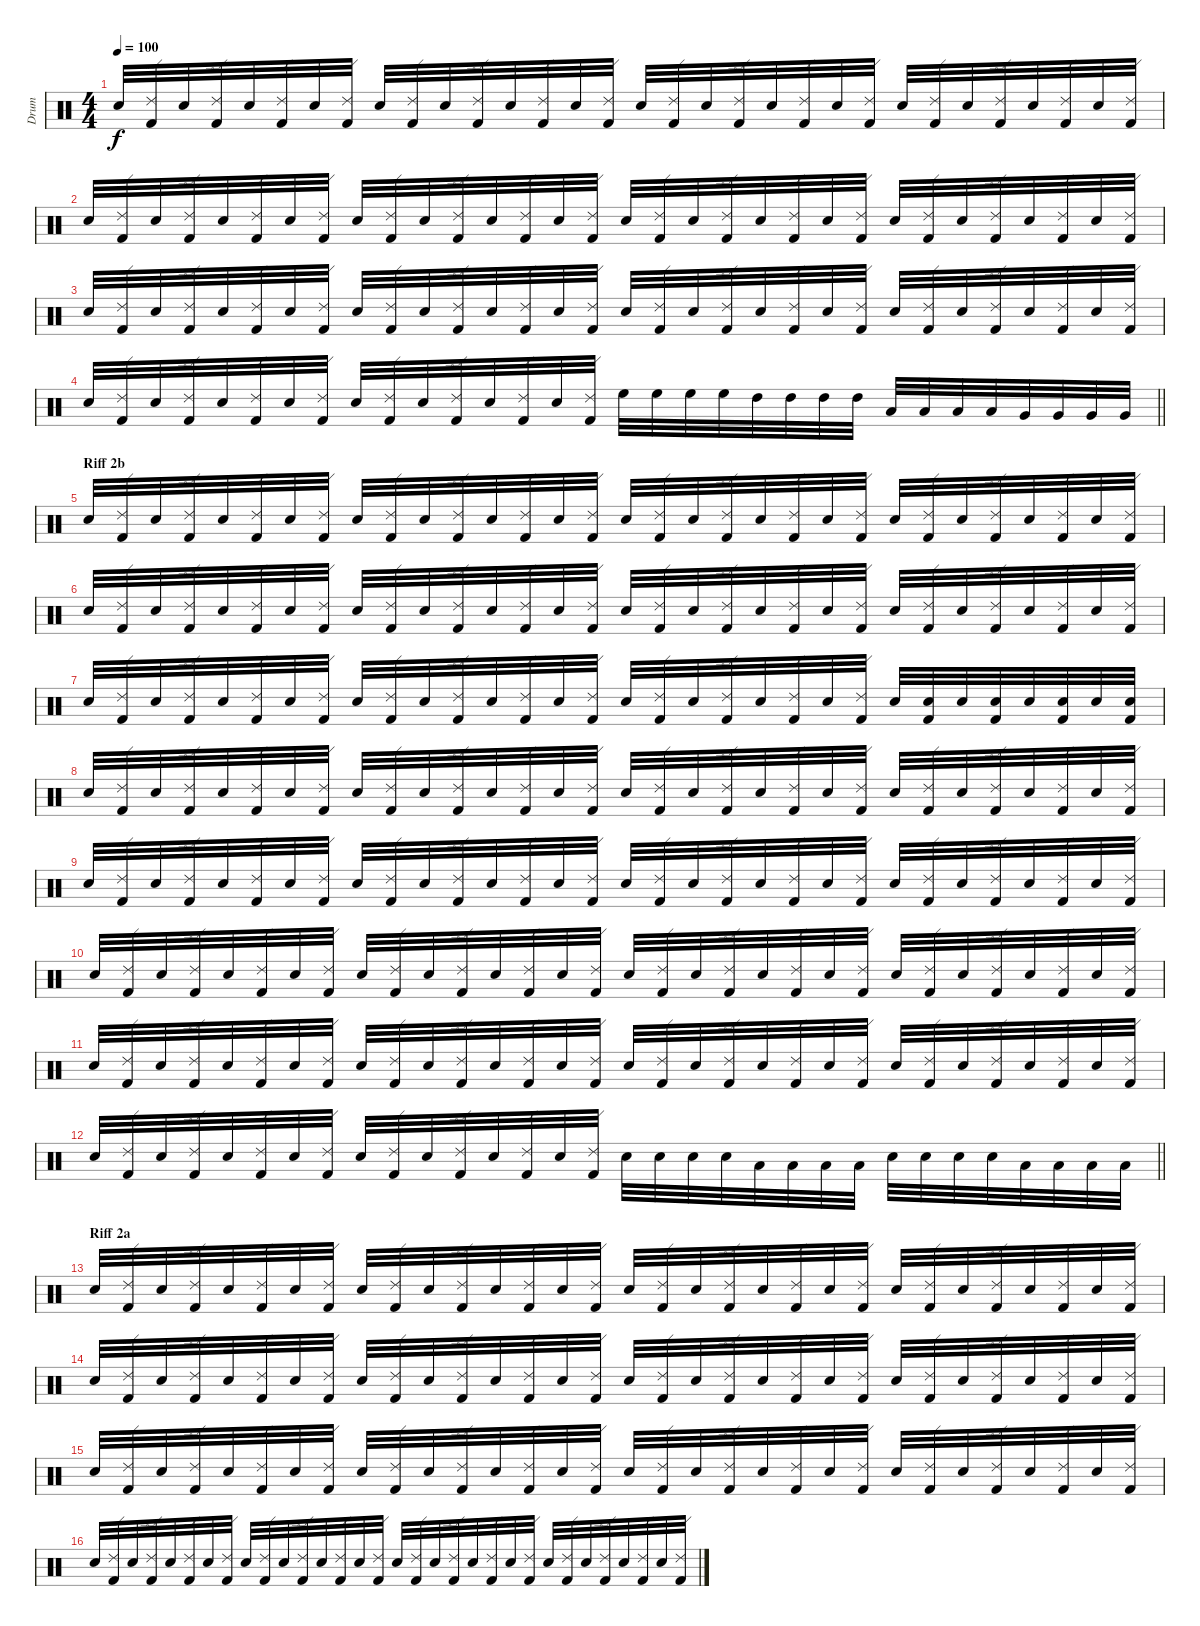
\track ("Drum" "Drum") {instrument percussion}
\staff {score}
\articulation defaults
\ts (4 4)
\tempo 100
\clef neutral
\ks c "Electric Snare (hit)".32{dy f}
("Ride (edge) 2" "Kick (hit) 2").32 "Electric Snare (hit)".32 ("Ride (edge) 2" "Kick (hit) 2").32 "Electric Snare (hit)".32 ("Ride (edge) 2" "Kick (hit) 2").32 "Electric Snare (hit)".32 ("Ride (edge) 2" "Kick (hit) 2").32 "Electric Snare (hit)".32 ("Ride (edge) 2" "Kick (hit) 2").32 "Electric Snare (hit)".32 ("Ride (edge) 2" "Kick (hit) 2").32 "Electric Snare (hit)".32 ("Ride (edge) 2" "Kick (hit) 2").32 "Electric Snare (hit)".32 ("Ride (edge) 2" "Kick (hit) 2").32 "Electric Snare (hit)".32 ("Ride (edge) 2" "Kick (hit) 2").32 "Electric Snare (hit)".32 ("Ride (edge) 2" "Kick (hit) 2").32 "Electric Snare (hit)".32 ("Ride (edge) 2" "Kick (hit) 2").32 "Electric Snare (hit)".32 ("Ride (edge) 2" "Kick (hit) 2").32 "Electric Snare (hit)".32 ("Ride (edge) 2" "Kick (hit) 2").32 "Electric Snare (hit)".32 ("Ride (edge) 2" "Kick (hit) 2").32 "Electric Snare (hit)".32 ("Ride (edge) 2" "Kick (hit) 2").32 "Electric Snare (hit)".32 ("Ride (edge) 2" "Kick (hit) 2").32 |
"Electric Snare (hit)".32 ("Ride (edge) 2" "Kick (hit) 2").32 "Electric Snare (hit)".32 ("Ride (edge) 2" "Kick (hit) 2").32 "Electric Snare (hit)".32 ("Ride (edge) 2" "Kick (hit) 2").32 "Electric Snare (hit)".32 ("Ride (edge) 2" "Kick (hit) 2").32 "Electric Snare (hit)".32 ("Ride (edge) 2" "Kick (hit) 2").32 "Electric Snare (hit)".32 ("Ride (edge) 2" "Kick (hit) 2").32 "Electric Snare (hit)".32 ("Ride (edge) 2" "Kick (hit) 2").32 "Electric Snare (hit)".32 ("Ride (edge) 2" "Kick (hit) 2").32 "Electric Snare (hit)".32 ("Ride (edge) 2" "Kick (hit) 2").32 "Electric Snare (hit)".32 ("Ride (edge) 2" "Kick (hit) 2").32 "Electric Snare (hit)".32 ("Ride (edge) 2" "Kick (hit) 2").32 "Electric Snare (hit)".32 ("Ride (edge) 2" "Kick (hit) 2").32 "Electric Snare (hit)".32 ("Ride (edge) 2" "Kick (hit) 2").32 "Electric Snare (hit)".32 ("Ride (edge) 2" "Kick (hit) 2").32 "Electric Snare (hit)".32 ("Ride (edge) 2" "Kick (hit) 2").32 "Electric Snare (hit)".32 ("Ride (edge) 2" "Kick (hit) 2").32 |
"Electric Snare (hit)".32 ("Ride (edge) 2" "Kick (hit) 2").32 "Electric Snare (hit)".32 ("Ride (edge) 2" "Kick (hit) 2").32 "Electric Snare (hit)".32 ("Ride (edge) 2" "Kick (hit) 2").32 "Electric Snare (hit)".32 ("Ride (edge) 2" "Kick (hit) 2").32 "Electric Snare (hit)".32 ("Ride (edge) 2" "Kick (hit) 2").32 "Electric Snare (hit)".32 ("Ride (edge) 2" "Kick (hit) 2").32 "Electric Snare (hit)".32 ("Ride (edge) 2" "Kick (hit) 2").32 "Electric Snare (hit)".32 ("Ride (edge) 2" "Kick (hit) 2").32 "Electric Snare (hit)".32 ("Ride (edge) 2" "Kick (hit) 2").32 "Electric Snare (hit)".32 ("Ride (edge) 2" "Kick (hit) 2").32 "Electric Snare (hit)".32 ("Ride (edge) 2" "Kick (hit) 2").32 "Electric Snare (hit)".32 ("Ride (edge) 2" "Kick (hit) 2").32 "Electric Snare (hit)".32 ("Ride (edge) 2" "Kick (hit) 2").32 "Electric Snare (hit)".32 ("Ride (edge) 2" "Kick (hit) 2").32 "Electric Snare (hit)".32 ("Ride (edge) 2" "Kick (hit) 2").32 "Electric Snare (hit)".32 ("Ride (edge) 2" "Kick (hit) 2").32 |
\barLineRight lightlight "Electric Snare (hit)".32
("Ride (edge) 2" "Kick (hit) 2").32 "Electric Snare (hit)".32 ("Ride (edge) 2" "Kick (hit) 2").32 "Electric Snare (hit)".32 ("Ride (edge) 2" "Kick (hit) 2").32 "Electric Snare (hit)".32 ("Ride (edge) 2" "Kick (hit) 2").32 "Electric Snare (hit)".32 ("Ride (edge) 2" "Kick (hit) 2").32 "Electric Snare (hit)".32 ("Ride (edge) 2" "Kick (hit) 2").32 "Electric Snare (hit)".32 ("Ride (edge) 2" "Kick (hit) 2").32 "Electric Snare (hit)".32 ("Ride (edge) 2" "Kick (hit) 2").32 "High Floor Tom (hit)".32 "High Floor Tom (hit)".32 "High Floor Tom (hit)".32 "High Floor Tom (hit)".32 "High Tom (hit)".32 "High Tom (hit)".32 "High Tom (hit)".32 "High Tom (hit)".32 "Low Tom (hit)".32 "Low Tom (hit)".32 "Low Tom (hit)".32 "Low Tom (hit)".32 "Very Low Tom (hit)".32 "Very Low Tom (hit)".32 "Very Low Tom (hit)".32 "Very Low Tom (hit)".32 |
\section ("" "Riff 2b")
"Electric Snare (hit)".32 ("Ride (edge) 2" "Kick (hit) 2").32 "Electric Snare (hit)".32 ("Ride (edge) 2" "Kick (hit) 2").32 "Electric Snare (hit)".32 ("Ride (edge) 2" "Kick (hit) 2").32 "Electric Snare (hit)".32 ("Ride (edge) 2" "Kick (hit) 2").32 "Electric Snare (hit)".32 ("Ride (edge) 2" "Kick (hit) 2").32 "Electric Snare (hit)".32 ("Ride (edge) 2" "Kick (hit) 2").32 "Electric Snare (hit)".32 ("Ride (edge) 2" "Kick (hit) 2").32 "Electric Snare (hit)".32 ("Ride (edge) 2" "Kick (hit) 2").32 "Electric Snare (hit)".32 ("Ride (edge) 2" "Kick (hit) 2").32 "Electric Snare (hit)".32 ("Ride (edge) 2" "Kick (hit) 2").32 "Electric Snare (hit)".32 ("Ride (edge) 2" "Kick (hit) 2").32 "Electric Snare (hit)".32 ("Ride (edge) 2" "Kick (hit) 2").32 "Electric Snare (hit)".32 ("Ride (edge) 2" "Kick (hit) 2").32 "Electric Snare (hit)".32 ("Ride (edge) 2" "Kick (hit) 2").32 "Electric Snare (hit)".32 ("Ride (edge) 2" "Kick (hit) 2").32 "Electric Snare (hit)".32 ("Ride (edge) 2" "Kick (hit) 2").32 |
"Electric Snare (hit)".32 ("Ride (edge) 2" "Kick (hit) 2").32 "Electric Snare (hit)".32 ("Ride (edge) 2" "Kick (hit) 2").32 "Electric Snare (hit)".32 ("Ride (edge) 2" "Kick (hit) 2").32 "Electric Snare (hit)".32 ("Ride (edge) 2" "Kick (hit) 2").32 "Electric Snare (hit)".32 ("Ride (edge) 2" "Kick (hit) 2").32 "Electric Snare (hit)".32 ("Ride (edge) 2" "Kick (hit) 2").32 "Electric Snare (hit)".32 ("Ride (edge) 2" "Kick (hit) 2").32 "Electric Snare (hit)".32 ("Ride (edge) 2" "Kick (hit) 2").32 "Electric Snare (hit)".32 ("Ride (edge) 2" "Kick (hit) 2").32 "Electric Snare (hit)".32 ("Ride (edge) 2" "Kick (hit) 2").32 "Electric Snare (hit)".32 ("Ride (edge) 2" "Kick (hit) 2").32 "Electric Snare (hit)".32 ("Ride (edge) 2" "Kick (hit) 2").32 "Electric Snare (hit)".32 ("Ride (edge) 2" "Kick (hit) 2").32 "Electric Snare (hit)".32 ("Ride (edge) 2" "Kick (hit) 2").32 "Electric Snare (hit)".32 ("Ride (edge) 2" "Kick (hit) 2").32 "Electric Snare (hit)".32 ("Ride (edge) 2" "Kick (hit) 2").32 |
"Electric Snare (hit)".32 ("Ride (edge) 2" "Kick (hit) 2").32 "Electric Snare (hit)".32 ("Ride (edge) 2" "Kick (hit) 2").32 "Electric Snare (hit)".32 ("Ride (edge) 2" "Kick (hit) 2").32 "Electric Snare (hit)".32 ("Ride (edge) 2" "Kick (hit) 2").32 "Electric Snare (hit)".32 ("Ride (edge) 2" "Kick (hit) 2").32 "Electric Snare (hit)".32 ("Ride (edge) 2" "Kick (hit) 2").32 "Electric Snare (hit)".32 ("Ride (edge) 2" "Kick (hit) 2").32 "Electric Snare (hit)".32 ("Ride (edge) 2" "Kick (hit) 2").32 "Electric Snare (hit)".32 ("Ride (edge) 2" "Kick (hit) 2").32 "Electric Snare (hit)".32 ("Ride (edge) 2" "Kick (hit) 2").32 "Electric Snare (hit)".32 ("Ride (edge) 2" "Kick (hit) 2").32 "Electric Snare (hit)".32 ("Ride (edge) 2" "Kick (hit) 2").32 "Electric Snare (hit)".32 ("Electric Snare (hit)" "Kick (hit) 2").32 "Electric Snare (hit)".32 ("Electric Snare (hit)" "Kick (hit) 2").32 "Electric Snare (hit)".32 ("Electric Snare (hit)" "Kick (hit) 2").32 "Electric Snare (hit)".32 ("Electric Snare (hit)" "Kick (hit) 2").32 |
"Electric Snare (hit)".32 ("Ride (edge) 2" "Kick (hit) 2").32 "Electric Snare (hit)".32 ("Ride (edge) 2" "Kick (hit) 2").32 "Electric Snare (hit)".32 ("Ride (edge) 2" "Kick (hit) 2").32 "Electric Snare (hit)".32 ("Ride (edge) 2" "Kick (hit) 2").32 "Electric Snare (hit)".32 ("Ride (edge) 2" "Kick (hit) 2").32 "Electric Snare (hit)".32 ("Ride (edge) 2" "Kick (hit) 2").32 "Electric Snare (hit)".32 ("Ride (edge) 2" "Kick (hit) 2").32 "Electric Snare (hit)".32 ("Ride (edge) 2" "Kick (hit) 2").32 "Electric Snare (hit)".32 ("Ride (edge) 2" "Kick (hit) 2").32 "Electric Snare (hit)".32 ("Ride (edge) 2" "Kick (hit) 2").32 "Electric Snare (hit)".32 ("Ride (edge) 2" "Kick (hit) 2").32 "Electric Snare (hit)".32 ("Ride (edge) 2" "Kick (hit) 2").32 "Electric Snare (hit)".32 ("Ride (edge) 2" "Kick (hit) 2").32 "Electric Snare (hit)".32 ("Ride (edge) 2" "Kick (hit) 2").32 "Electric Snare (hit)".32 ("Ride (edge) 2" "Kick (hit) 2").32 "Electric Snare (hit)".32 ("Ride (edge) 2" "Kick (hit) 2").32 |
"Electric Snare (hit)".32 ("Ride (edge) 2" "Kick (hit) 2").32 "Electric Snare (hit)".32 ("Ride (edge) 2" "Kick (hit) 2").32 "Electric Snare (hit)".32 ("Ride (edge) 2" "Kick (hit) 2").32 "Electric Snare (hit)".32 ("Ride (edge) 2" "Kick (hit) 2").32 "Electric Snare (hit)".32 ("Ride (edge) 2" "Kick (hit) 2").32 "Electric Snare (hit)".32 ("Ride (edge) 2" "Kick (hit) 2").32 "Electric Snare (hit)".32 ("Ride (edge) 2" "Kick (hit) 2").32 "Electric Snare (hit)".32 ("Ride (edge) 2" "Kick (hit) 2").32 "Electric Snare (hit)".32 ("Ride (edge) 2" "Kick (hit) 2").32 "Electric Snare (hit)".32 ("Ride (edge) 2" "Kick (hit) 2").32 "Electric Snare (hit)".32 ("Ride (edge) 2" "Kick (hit) 2").32 "Electric Snare (hit)".32 ("Ride (edge) 2" "Kick (hit) 2").32 "Electric Snare (hit)".32 ("Ride (edge) 2" "Kick (hit) 2").32 "Electric Snare (hit)".32 ("Ride (edge) 2" "Kick (hit) 2").32 "Electric Snare (hit)".32 ("Ride (edge) 2" "Kick (hit) 2").32 "Electric Snare (hit)".32 ("Ride (edge) 2" "Kick (hit) 2").32 |
"Electric Snare (hit)".32 ("Ride (edge) 2" "Kick (hit) 2").32 "Electric Snare (hit)".32 ("Ride (edge) 2" "Kick (hit) 2").32 "Electric Snare (hit)".32 ("Ride (edge) 2" "Kick (hit) 2").32 "Electric Snare (hit)".32 ("Ride (edge) 2" "Kick (hit) 2").32 "Electric Snare (hit)".32 ("Ride (edge) 2" "Kick (hit) 2").32 "Electric Snare (hit)".32 ("Ride (edge) 2" "Kick (hit) 2").32 "Electric Snare (hit)".32 ("Ride (edge) 2" "Kick (hit) 2").32 "Electric Snare (hit)".32 ("Ride (edge) 2" "Kick (hit) 2").32 "Electric Snare (hit)".32 ("Ride (edge) 2" "Kick (hit) 2").32 "Electric Snare (hit)".32 ("Ride (edge) 2" "Kick (hit) 2").32 "Electric Snare (hit)".32 ("Ride (edge) 2" "Kick (hit) 2").32 "Electric Snare (hit)".32 ("Ride (edge) 2" "Kick (hit) 2").32 "Electric Snare (hit)".32 ("Ride (edge) 2" "Kick (hit) 2").32 "Electric Snare (hit)".32 ("Ride (edge) 2" "Kick (hit) 2").32 "Electric Snare (hit)".32 ("Ride (edge) 2" "Kick (hit) 2").32 "Electric Snare (hit)".32 ("Ride (edge) 2" "Kick (hit) 2").32 |
"Electric Snare (hit)".32 ("Ride (edge) 2" "Kick (hit) 2").32 "Electric Snare (hit)".32 ("Ride (edge) 2" "Kick (hit) 2").32 "Electric Snare (hit)".32 ("Ride (edge) 2" "Kick (hit) 2").32 "Electric Snare (hit)".32 ("Ride (edge) 2" "Kick (hit) 2").32 "Electric Snare (hit)".32 ("Ride (edge) 2" "Kick (hit) 2").32 "Electric Snare (hit)".32 ("Ride (edge) 2" "Kick (hit) 2").32 "Electric Snare (hit)".32 ("Ride (edge) 2" "Kick (hit) 2").32 "Electric Snare (hit)".32 ("Ride (edge) 2" "Kick (hit) 2").32 "Electric Snare (hit)".32 ("Ride (edge) 2" "Kick (hit) 2").32 "Electric Snare (hit)".32 ("Ride (edge) 2" "Kick (hit) 2").32 "Electric Snare (hit)".32 ("Ride (edge) 2" "Kick (hit) 2").32 "Electric Snare (hit)".32 ("Ride (edge) 2" "Kick (hit) 2").32 "Electric Snare (hit)".32 ("Ride (edge) 2" "Kick (hit) 2").32 "Electric Snare (hit)".32 ("Ride (edge) 2" "Kick (hit) 2").32 "Electric Snare (hit)".32 ("Ride (edge) 2" "Kick (hit) 2").32 "Electric Snare (hit)".32 ("Ride (edge) 2" "Kick (hit) 2").32 |
\barLineRight lightlight "Electric Snare (hit)".32
("Ride (edge) 2" "Kick (hit) 2").32 "Electric Snare (hit)".32 ("Ride (edge) 2" "Kick (hit) 2").32 "Electric Snare (hit)".32 ("Ride (edge) 2" "Kick (hit) 2").32 "Electric Snare (hit)".32 ("Ride (edge) 2" "Kick (hit) 2").32 "Electric Snare (hit)".32 ("Ride (edge) 2" "Kick (hit) 2").32 "Electric Snare (hit)".32 ("Ride (edge) 2" "Kick (hit) 2").32 "Electric Snare (hit)".32 ("Ride (edge) 2" "Kick (hit) 2").32 "Electric Snare (hit)".32 ("Ride (edge) 2" "Kick (hit) 2").32 "Electric Snare (hit)".32 "Electric Snare (hit)".32 "Electric Snare (hit)".32 "Electric Snare (hit)".32 "Low Tom (hit)".32 "Low Tom (hit)".32 "Low Tom (hit)".32 "Low Tom (hit)".32 "Electric Snare (hit)".32 "Electric Snare (hit)".32 "Electric Snare (hit)".32 "Electric Snare (hit)".32 "Low Tom (hit)".32 "Low Tom (hit)".32 "Low Tom (hit)".32 "Low Tom (hit)".32 |
\section ("" "Riff 2a")
"Electric Snare (hit)".32 ("Ride (edge) 2" "Kick (hit) 2").32 "Electric Snare (hit)".32 ("Ride (edge) 2" "Kick (hit) 2").32 "Electric Snare (hit)".32 ("Ride (edge) 2" "Kick (hit) 2").32 "Electric Snare (hit)".32 ("Ride (edge) 2" "Kick (hit) 2").32 "Electric Snare (hit)".32 ("Ride (edge) 2" "Kick (hit) 2").32 "Electric Snare (hit)".32 ("Ride (edge) 2" "Kick (hit) 2").32 "Electric Snare (hit)".32 ("Ride (edge) 2" "Kick (hit) 2").32 "Electric Snare (hit)".32 ("Ride (edge) 2" "Kick (hit) 2").32 "Electric Snare (hit)".32 ("Ride (edge) 2" "Kick (hit) 2").32 "Electric Snare (hit)".32 ("Ride (edge) 2" "Kick (hit) 2").32 "Electric Snare (hit)".32 ("Ride (edge) 2" "Kick (hit) 2").32 "Electric Snare (hit)".32 ("Ride (edge) 2" "Kick (hit) 2").32 "Electric Snare (hit)".32 ("Ride (edge) 2" "Kick (hit) 2").32 "Electric Snare (hit)".32 ("Ride (edge) 2" "Kick (hit) 2").32 "Electric Snare (hit)".32 ("Ride (edge) 2" "Kick (hit) 2").32 "Electric Snare (hit)".32 ("Ride (edge) 2" "Kick (hit) 2").32 |
"Electric Snare (hit)".32 ("Ride (edge) 2" "Kick (hit) 2").32 "Electric Snare (hit)".32 ("Ride (edge) 2" "Kick (hit) 2").32 "Electric Snare (hit)".32 ("Ride (edge) 2" "Kick (hit) 2").32 "Electric Snare (hit)".32 ("Ride (edge) 2" "Kick (hit) 2").32 "Electric Snare (hit)".32 ("Ride (edge) 2" "Kick (hit) 2").32 "Electric Snare (hit)".32 ("Ride (edge) 2" "Kick (hit) 2").32 "Electric Snare (hit)".32 ("Ride (edge) 2" "Kick (hit) 2").32 "Electric Snare (hit)".32 ("Ride (edge) 2" "Kick (hit) 2").32 "Electric Snare (hit)".32 ("Ride (edge) 2" "Kick (hit) 2").32 "Electric Snare (hit)".32 ("Ride (edge) 2" "Kick (hit) 2").32 "Electric Snare (hit)".32 ("Ride (edge) 2" "Kick (hit) 2").32 "Electric Snare (hit)".32 ("Ride (edge) 2" "Kick (hit) 2").32 "Electric Snare (hit)".32 ("Ride (edge) 2" "Kick (hit) 2").32 "Electric Snare (hit)".32 ("Ride (edge) 2" "Kick (hit) 2").32 "Electric Snare (hit)".32 ("Ride (edge) 2" "Kick (hit) 2").32 "Electric Snare (hit)".32 ("Ride (edge) 2" "Kick (hit) 2").32 |
"Electric Snare (hit)".32 ("Ride (edge) 2" "Kick (hit) 2").32 "Electric Snare (hit)".32 ("Ride (edge) 2" "Kick (hit) 2").32 "Electric Snare (hit)".32 ("Ride (edge) 2" "Kick (hit) 2").32 "Electric Snare (hit)".32 ("Ride (edge) 2" "Kick (hit) 2").32 "Electric Snare (hit)".32 ("Ride (edge) 2" "Kick (hit) 2").32 "Electric Snare (hit)".32 ("Ride (edge) 2" "Kick (hit) 2").32 "Electric Snare (hit)".32 ("Ride (edge) 2" "Kick (hit) 2").32 "Electric Snare (hit)".32 ("Ride (edge) 2" "Kick (hit) 2").32 "Electric Snare (hit)".32 ("Ride (edge) 2" "Kick (hit) 2").32 "Electric Snare (hit)".32 ("Ride (edge) 2" "Kick (hit) 2").32 "Electric Snare (hit)".32 ("Ride (edge) 2" "Kick (hit) 2").32 "Electric Snare (hit)".32 ("Ride (edge) 2" "Kick (hit) 2").32 "Electric Snare (hit)".32 ("Ride (edge) 2" "Kick (hit) 2").32 "Electric Snare (hit)".32 ("Ride (edge) 2" "Kick (hit) 2").32 "Electric Snare (hit)".32 ("Ride (edge) 2" "Kick (hit) 2").32 "Electric Snare (hit)".32 ("Ride (edge) 2" "Kick (hit) 2").32 |
"Electric Snare (hit)".32 ("Ride (edge) 2" "Kick (hit) 2").32 "Electric Snare (hit)".32 ("Ride (edge) 2" "Kick (hit) 2").32 "Electric Snare (hit)".32 ("Ride (edge) 2" "Kick (hit) 2").32 "Electric Snare (hit)".32 ("Ride (edge) 2" "Kick (hit) 2").32 "Electric Snare (hit)".32 ("Ride (edge) 2" "Kick (hit) 2").32 "Electric Snare (hit)".32 ("Ride (edge) 2" "Kick (hit) 2").32 "Electric Snare (hit)".32 ("Ride (edge) 2" "Kick (hit) 2").32 "Electric Snare (hit)".32 ("Ride (edge) 2" "Kick (hit) 2").32 "Electric Snare (hit)".32 ("Ride (edge) 2" "Kick (hit) 2").32 "Electric Snare (hit)".32 ("Ride (edge) 2" "Kick (hit) 2").32 "Electric Snare (hit)".32 ("Ride (edge) 2" "Kick (hit) 2").32 "Electric Snare (hit)".32 ("Ride (edge) 2" "Kick (hit) 2").32 "Electric Snare (hit)".32 ("Ride (edge) 2" "Kick (hit) 2").32 "Electric Snare (hit)".32 ("Ride (edge) 2" "Kick (hit) 2").32 "Electric Snare (hit)".32 ("Ride (edge) 2" "Kick (hit) 2").32 "Electric Snare (hit)".32 ("Ride (edge) 2" "Kick (hit) 2").32
